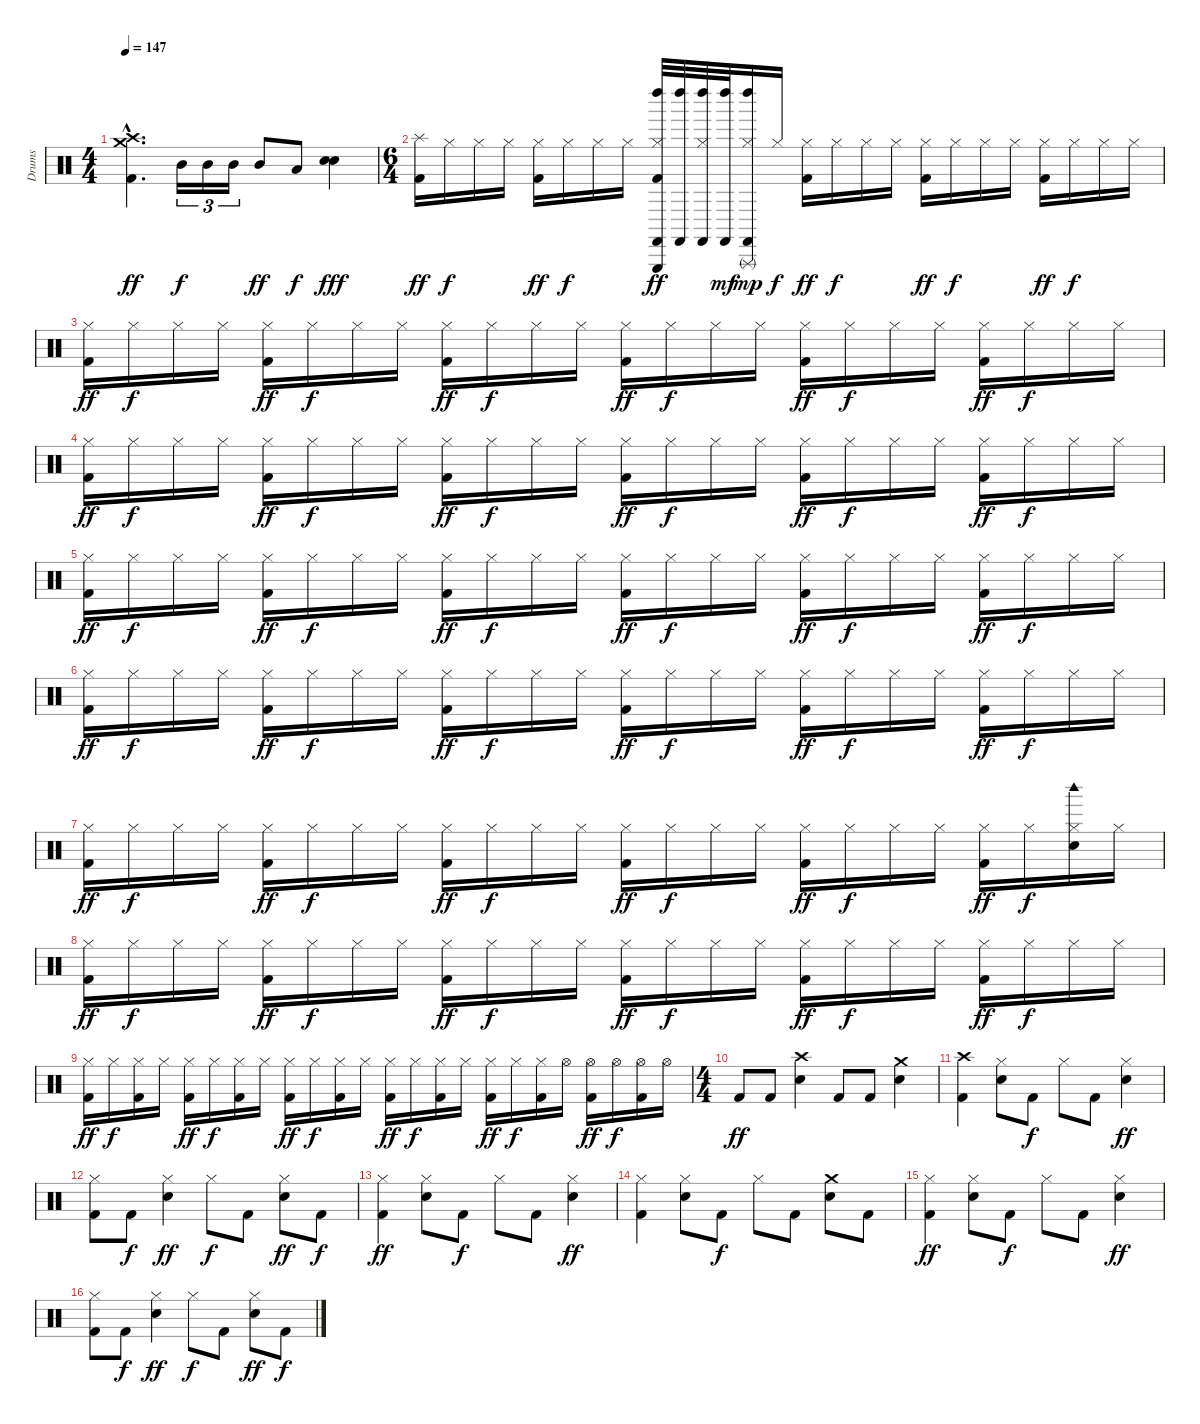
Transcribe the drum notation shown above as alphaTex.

\track ("Drums" "Drums") {instrument percussion}
\staff {score}
\articulation defaults
\ts (4 4)
\tempo 147
\clef neutral
\ks c
("Crash high (hit)"{hac} "Crash medium (hit)"{hac} "Kick (hit) 2"{hac}).4{d dy ff} "Mid Tom (hit)".16{tu (3 2) dy f} "Mid Tom (hit)".16{tu (3 2)} "Mid Tom (hit)".16{tu (3 2)} "Mid Tom (hit)".8{dy ff} "Low Tom (hit)".8{dy f} ("Electric Snare (hit)" "Electric Snare (hit)").4{dy fff} |
\ts (6 4)
("Splash (hit)" "Kick (hit) 2").16{dy ff} "Hi-Hat (closed)".16{dy f} "Hi-Hat (closed)".16 "Hi-Hat (closed)".16 ("Hi-Hat (closed)" "Kick (hit) 2").16{dy ff} "Hi-Hat (closed)".16{dy f} "Hi-Hat (closed)".16 "Hi-Hat (closed)".16 ("Triangle (hit)" "Castanets (hit)" "Left Maraca (hit)" "Hi-Hat (closed)" "Kick (hit) 2").32{dy ff} ("Castanets (hit)" "Left Maraca (hit)").32 ("Castanets (hit)" "Left Maraca (hit)" "Hi-Hat (closed)").32 ("Castanets (hit)" "Left Maraca (hit)").32{dy mf} ("Left Maraca (hit)" "Hi-Hat (closed)" "Triangle (rnute)" "Castanets (hit)").16{dy mp} "Hi-Hat (closed)".16{dy f} ("Hi-Hat (closed)" "Kick (hit) 2").16{dy ff} "Hi-Hat (closed)".16{dy f} "Hi-Hat (closed)".16 "Hi-Hat (closed)".16 ("Hi-Hat (closed)" "Kick (hit) 2").16{dy ff} "Hi-Hat (closed)".16{dy f} "Hi-Hat (closed)".16 "Hi-Hat (closed)".16 ("Hi-Hat (closed)" "Kick (hit) 2").16{dy ff} "Hi-Hat (closed)".16{dy f} "Hi-Hat (closed)".16 "Hi-Hat (closed)".16 |
("Hi-Hat (closed)" "Kick (hit) 2").16{dy ff} "Hi-Hat (closed)".16{dy f} "Hi-Hat (closed)".16 "Hi-Hat (closed)".16 ("Hi-Hat (closed)" "Kick (hit) 2").16{dy ff} "Hi-Hat (closed)".16{dy f} "Hi-Hat (closed)".16 "Hi-Hat (closed)".16 ("Hi-Hat (closed)" "Kick (hit) 2").16{dy ff} "Hi-Hat (closed)".16{dy f} "Hi-Hat (closed)".16 "Hi-Hat (closed)".16 ("Hi-Hat (closed)" "Kick (hit) 2").16{dy ff} "Hi-Hat (closed)".16{dy f} "Hi-Hat (closed)".16 "Hi-Hat (closed)".16 ("Hi-Hat (closed)" "Kick (hit) 2").16{dy ff} "Hi-Hat (closed)".16{dy f} "Hi-Hat (closed)".16 "Hi-Hat (closed)".16 ("Hi-Hat (closed)" "Kick (hit) 2").16{dy ff} "Hi-Hat (closed)".16{dy f} "Hi-Hat (closed)".16 "Hi-Hat (closed)".16 |
("Hi-Hat (closed)" "Kick (hit) 2").16{dy ff} "Hi-Hat (closed)".16{dy f} "Hi-Hat (closed)".16 "Hi-Hat (closed)".16 ("Hi-Hat (closed)" "Kick (hit) 2").16{dy ff} "Hi-Hat (closed)".16{dy f} "Hi-Hat (closed)".16 "Hi-Hat (closed)".16 ("Hi-Hat (closed)" "Kick (hit) 2").16{dy ff} "Hi-Hat (closed)".16{dy f} "Hi-Hat (closed)".16 "Hi-Hat (closed)".16 ("Hi-Hat (closed)" "Kick (hit) 2").16{dy ff} "Hi-Hat (closed)".16{dy f} "Hi-Hat (closed)".16 "Hi-Hat (closed)".16 ("Hi-Hat (closed)" "Kick (hit) 2").16{dy ff} "Hi-Hat (closed)".16{dy f} "Hi-Hat (closed)".16 "Hi-Hat (closed)".16 ("Hi-Hat (closed)" "Kick (hit) 2").16{dy ff} "Hi-Hat (closed)".16{dy f} "Hi-Hat (closed)".16 "Hi-Hat (closed)".16 |
("Hi-Hat (closed)" "Kick (hit) 2").16{dy ff} "Hi-Hat (closed)".16{dy f} "Hi-Hat (closed)".16 "Hi-Hat (closed)".16 ("Hi-Hat (closed)" "Kick (hit) 2").16{dy ff} "Hi-Hat (closed)".16{dy f} "Hi-Hat (closed)".16 "Hi-Hat (closed)".16 ("Hi-Hat (closed)" "Kick (hit) 2").16{dy ff} "Hi-Hat (closed)".16{dy f} "Hi-Hat (closed)".16 "Hi-Hat (closed)".16 ("Hi-Hat (closed)" "Kick (hit) 2").16{dy ff} "Hi-Hat (closed)".16{dy f} "Hi-Hat (closed)".16 "Hi-Hat (closed)".16 ("Hi-Hat (closed)" "Kick (hit) 2").16{dy ff} "Hi-Hat (closed)".16{dy f} "Hi-Hat (closed)".16 "Hi-Hat (closed)".16 ("Hi-Hat (closed)" "Kick (hit) 2").16{dy ff} "Hi-Hat (closed)".16{dy f} "Hi-Hat (closed)".16 "Hi-Hat (closed)".16 |
("Hi-Hat (closed)" "Kick (hit) 2").16{dy ff} "Hi-Hat (closed)".16{dy f} "Hi-Hat (closed)".16 "Hi-Hat (closed)".16 ("Hi-Hat (closed)" "Kick (hit) 2").16{dy ff} "Hi-Hat (closed)".16{dy f} "Hi-Hat (closed)".16 "Hi-Hat (closed)".16 ("Hi-Hat (closed)" "Kick (hit) 2").16{dy ff} "Hi-Hat (closed)".16{dy f} "Hi-Hat (closed)".16 "Hi-Hat (closed)".16 ("Hi-Hat (closed)" "Kick (hit) 2").16{dy ff} "Hi-Hat (closed)".16{dy f} "Hi-Hat (closed)".16 "Hi-Hat (closed)".16 ("Hi-Hat (closed)" "Kick (hit) 2").16{dy ff} "Hi-Hat (closed)".16{dy f} "Hi-Hat (closed)".16 "Hi-Hat (closed)".16 ("Hi-Hat (closed)" "Kick (hit) 2").16{dy ff} "Hi-Hat (closed)".16{dy f} "Hi-Hat (closed)".16 "Hi-Hat (closed)".16 |
("Hi-Hat (closed)" "Kick (hit) 2").16{dy ff} "Hi-Hat (closed)".16{dy f} "Hi-Hat (closed)".16 "Hi-Hat (closed)".16 ("Hi-Hat (closed)" "Kick (hit) 2").16{dy ff} "Hi-Hat (closed)".16{dy f} "Hi-Hat (closed)".16 "Hi-Hat (closed)".16 ("Hi-Hat (closed)" "Kick (hit) 2").16{dy ff} "Hi-Hat (closed)".16{dy f} "Hi-Hat (closed)".16 "Hi-Hat (closed)".16 ("Hi-Hat (closed)" "Kick (hit) 2").16{dy ff} "Hi-Hat (closed)".16{dy f} "Hi-Hat (closed)".16 "Hi-Hat (closed)".16 ("Hi-Hat (closed)" "Kick (hit) 2").16{dy ff} "Hi-Hat (closed)".16{dy f} "Hi-Hat (closed)".16 "Hi-Hat (closed)".16 ("Hi-Hat (closed)" "Kick (hit) 2").16{dy ff} "Hi-Hat (closed)".16{dy f} ("Hi-Hat (closed)" "Woodblock high (hit)" "Snare (hit)").16 "Hi-Hat (closed)".16 |
("Hi-Hat (closed)" "Kick (hit) 2").16{dy ff} "Hi-Hat (closed)".16{dy f} "Hi-Hat (closed)".16 "Hi-Hat (closed)".16 ("Hi-Hat (closed)" "Kick (hit) 2").16{dy ff} "Hi-Hat (closed)".16{dy f} "Hi-Hat (closed)".16 "Hi-Hat (closed)".16 ("Hi-Hat (closed)" "Kick (hit) 2").16{dy ff} "Hi-Hat (closed)".16{dy f} "Hi-Hat (closed)".16 "Hi-Hat (closed)".16 ("Hi-Hat (closed)" "Kick (hit) 2").16{dy ff} "Hi-Hat (closed)".16{dy f} "Hi-Hat (closed)".16 "Hi-Hat (closed)".16 ("Hi-Hat (closed)" "Kick (hit) 2").16{dy ff} "Hi-Hat (closed)".16{dy f} "Hi-Hat (closed)".16 "Hi-Hat (closed)".16 ("Hi-Hat (closed)" "Kick (hit) 2").16{dy ff} "Hi-Hat (closed)".16{dy f} "Hi-Hat (closed)".16 "Hi-Hat (closed)".16 |
("Hi-Hat (closed)" "Kick (hit) 2").16{dy ff} "Hi-Hat (closed)".16{dy f} ("Kick (hit) 2" "Hi-Hat (closed)").16 "Hi-Hat (closed)".16 ("Hi-Hat (closed)" "Kick (hit) 2").16{dy ff} "Hi-Hat (closed)".16{dy f} ("Kick (hit) 2" "Hi-Hat (closed)").16 "Hi-Hat (closed)".16 ("Hi-Hat (closed)" "Kick (hit) 2").16{dy ff} "Hi-Hat (closed)".16{dy f} ("Kick (hit) 2" "Hi-Hat (closed)").16 "Hi-Hat (closed)".16 ("Hi-Hat (closed)" "Kick (hit) 2").16{dy ff} "Hi-Hat (closed)".16{dy f} ("Kick (hit) 2" "Hi-Hat (closed)").16 "Hi-Hat (closed)".16 ("Hi-Hat (closed)" "Kick (hit) 2").16{dy ff} "Hi-Hat (closed)".16{dy f} ("Kick (hit) 2" "Hi-Hat (closed)").16 "Hi-Hat (open)".16 ("Hi-Hat (open)" "Kick (hit) 2").16{dy ff} "Hi-Hat (open)".16{dy f} ("Hi-Hat (open)" "Kick (hit) 2").16 "Hi-Hat (open)".16 |
\ts (4 4)
"Kick (hit) 2".8{dy ff} "Kick (hit) 2".8 ("Crash high (hit)" "Snare (hit) 2").4 "Kick (hit) 2".8 "Kick (hit) 2".8 ("Crash medium (hit)" "Snare (hit) 2").4 |
("Crash high (hit)" "Kick (hit) 2").4 ("Hi-Hat (closed)" "Snare (hit) 2").8 "Kick (hit) 2".8{dy f} "Hi-Hat (closed)".8 "Kick (hit) 2".8 ("Hi-Hat (closed)" "Snare (hit) 2").4{dy ff} |
("Kick (hit) 2" "Hi-Hat (closed)").8 "Kick (hit) 2".8{dy f} ("Snare (hit) 2" "Hi-Hat (closed)").4{dy ff} "Hi-Hat (closed)".8{dy f} "Kick (hit) 2".8 ("Snare (hit) 2" "Hi-Hat (closed)").8{dy ff} "Kick (hit) 2".8{dy f} |
("Kick (hit) 2" "Hi-Hat (closed)").4{dy ff} ("Snare (hit) 2" "Hi-Hat (closed)").8 "Kick (hit) 2".8{dy f} "Hi-Hat (closed)".8 "Kick (hit) 2".8 ("Hi-Hat (closed)" "Snare (hit) 2").4{dy ff} |
("Kick (hit) 2" "Hi-Hat (closed)").4 ("Snare (hit) 2" "Hi-Hat (closed)").8 "Kick (hit) 2".8{dy f} "Hi-Hat (closed)".8 "Kick (hit) 2".8 ("Crash medium (hit)" "Snare (hit) 2").8 "Kick (hit) 2".8 |
("Kick (hit) 2" "Hi-Hat (closed)").4{dy ff} ("Snare (hit) 2" "Hi-Hat (closed)").8 "Kick (hit) 2".8{dy f} "Hi-Hat (closed)".8 "Kick (hit) 2".8 ("Hi-Hat (closed)" "Snare (hit) 2").4{dy ff} |
("Kick (hit) 2" "Hi-Hat (closed)").8 "Kick (hit) 2".8{dy f} ("Snare (hit) 2" "Hi-Hat (closed)").4{dy ff} "Hi-Hat (closed)".8{dy f} "Kick (hit) 2".8 ("Hi-Hat (closed)" "Snare (hit) 2").8{dy ff} "Kick (hit) 2".8{dy f}
